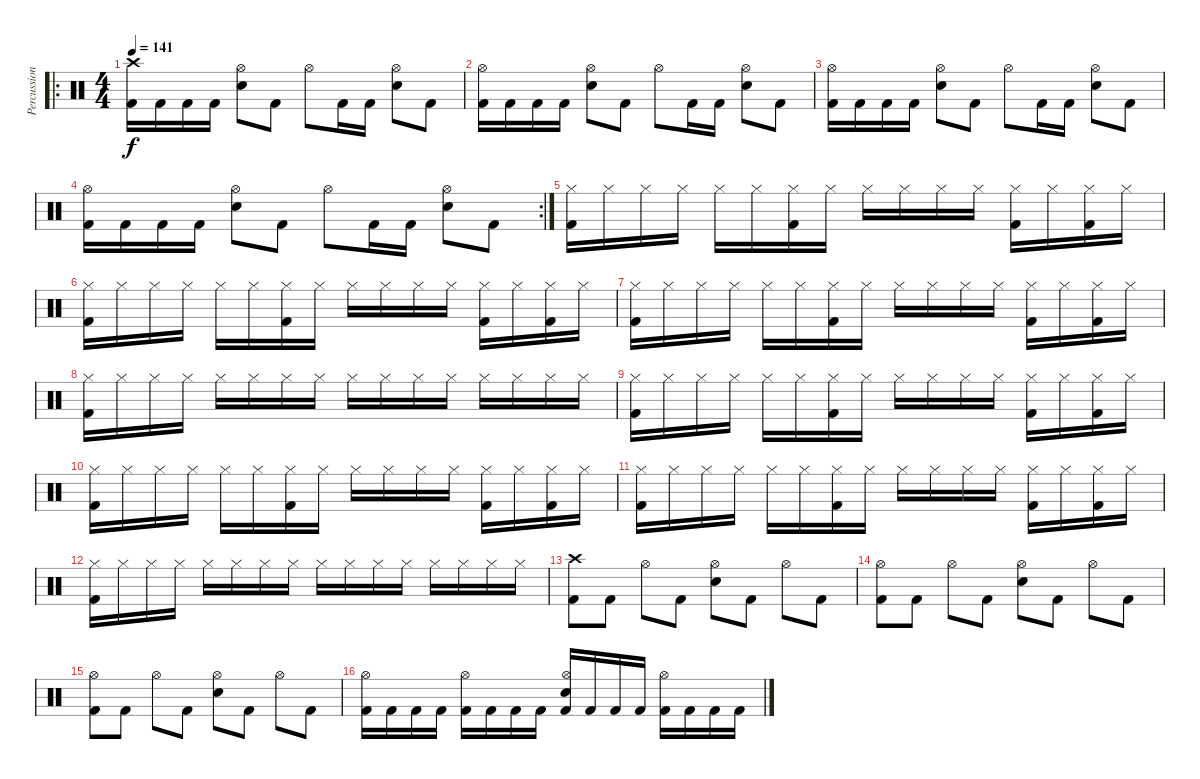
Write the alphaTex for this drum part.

\track ("Percussion" "Percussion") {instrument percussion}
\staff {score}
\articulation defaults
\ro
\ts (4 4)
\tempo 141
\clef neutral
\ks c
("Crash high (hit)" "Kick (hit) 2").16{dy f} "Kick (hit) 2".16 "Kick (hit) 2".16 "Kick (hit) 2".16 ("Hi-Hat (open)" "Electric Snare (hit)").8 "Kick (hit) 2".8 "Hi-Hat (open)".8 "Kick (hit) 2".16 "Kick (hit) 2".16 ("Hi-Hat (open)" "Electric Snare (hit)").8 "Kick (hit) 2".8 |
("Hi-Hat (open)" "Kick (hit) 2").16 "Kick (hit) 2".16 "Kick (hit) 2".16 "Kick (hit) 2".16 ("Hi-Hat (open)" "Electric Snare (hit)").8 "Kick (hit) 2".8 "Hi-Hat (open)".8 "Kick (hit) 2".16 "Kick (hit) 2".16 ("Hi-Hat (open)" "Electric Snare (hit)").8 "Kick (hit) 2".8 |
("Hi-Hat (open)" "Kick (hit) 2").16 "Kick (hit) 2".16 "Kick (hit) 2".16 "Kick (hit) 2".16 ("Hi-Hat (open)" "Electric Snare (hit)").8 "Kick (hit) 2".8 "Hi-Hat (open)".8 "Kick (hit) 2".16 "Kick (hit) 2".16 ("Hi-Hat (open)" "Electric Snare (hit)").8 "Kick (hit) 2".8 |
\rc 2
("Hi-Hat (open)" "Kick (hit) 2").16 "Kick (hit) 2".16 "Kick (hit) 2".16 "Kick (hit) 2".16 ("Hi-Hat (open)" "Electric Snare (hit)").8 "Kick (hit) 2".8 "Hi-Hat (open)".8 "Kick (hit) 2".16 "Kick (hit) 2".16 ("Hi-Hat (open)" "Electric Snare (hit)").8 "Kick (hit) 2".8 |
("Hi-Hat (closed)" "Kick (hit) 2").16 "Hi-Hat (closed)".16 "Hi-Hat (closed)".16 "Hi-Hat (closed)".16 "Hi-Hat (closed)".16 "Hi-Hat (closed)".16 ("Hi-Hat (closed)" "Kick (hit) 2").16 "Hi-Hat (closed)".16 "Hi-Hat (closed)".16 "Hi-Hat (closed)".16 "Hi-Hat (closed)".16 "Hi-Hat (closed)".16 ("Hi-Hat (closed)" "Kick (hit) 2").16 "Hi-Hat (closed)".16 ("Hi-Hat (closed)" "Kick (hit) 2").16 "Hi-Hat (closed)".16 |
("Hi-Hat (closed)" "Kick (hit) 2").16 "Hi-Hat (closed)".16 "Hi-Hat (closed)".16 "Hi-Hat (closed)".16 "Hi-Hat (closed)".16 "Hi-Hat (closed)".16 ("Hi-Hat (closed)" "Kick (hit) 2").16 "Hi-Hat (closed)".16 "Hi-Hat (closed)".16 "Hi-Hat (closed)".16 "Hi-Hat (closed)".16 "Hi-Hat (closed)".16 ("Hi-Hat (closed)" "Kick (hit) 2").16 "Hi-Hat (closed)".16 ("Hi-Hat (closed)" "Kick (hit) 2").16 "Hi-Hat (closed)".16 |
("Hi-Hat (closed)" "Kick (hit) 2").16 "Hi-Hat (closed)".16 "Hi-Hat (closed)".16 "Hi-Hat (closed)".16 "Hi-Hat (closed)".16 "Hi-Hat (closed)".16 ("Hi-Hat (closed)" "Kick (hit) 2").16 "Hi-Hat (closed)".16 "Hi-Hat (closed)".16 "Hi-Hat (closed)".16 "Hi-Hat (closed)".16 "Hi-Hat (closed)".16 ("Hi-Hat (closed)" "Kick (hit) 2").16 "Hi-Hat (closed)".16 ("Hi-Hat (closed)" "Kick (hit) 2").16 "Hi-Hat (closed)".16 |
("Hi-Hat (closed)" "Kick (hit) 2").16 "Hi-Hat (closed)".16 "Hi-Hat (closed)".16 "Hi-Hat (closed)".16 "Hi-Hat (closed)".16 "Hi-Hat (closed)".16 "Hi-Hat (closed)".16 "Hi-Hat (closed)".16 "Hi-Hat (closed)".16 "Hi-Hat (closed)".16 "Hi-Hat (closed)".16 "Hi-Hat (closed)".16 "Hi-Hat (closed)".16 "Hi-Hat (closed)".16 "Hi-Hat (closed)".16 "Hi-Hat (closed)".16 |
("Hi-Hat (closed)" "Kick (hit) 2").16 "Hi-Hat (closed)".16 "Hi-Hat (closed)".16 "Hi-Hat (closed)".16 "Hi-Hat (closed)".16 "Hi-Hat (closed)".16 ("Hi-Hat (closed)" "Kick (hit) 2").16 "Hi-Hat (closed)".16 "Hi-Hat (closed)".16 "Hi-Hat (closed)".16 "Hi-Hat (closed)".16 "Hi-Hat (closed)".16 ("Hi-Hat (closed)" "Kick (hit) 2").16 "Hi-Hat (closed)".16 ("Hi-Hat (closed)" "Kick (hit) 2").16 "Hi-Hat (closed)".16 |
("Hi-Hat (closed)" "Kick (hit) 2").16 "Hi-Hat (closed)".16 "Hi-Hat (closed)".16 "Hi-Hat (closed)".16 "Hi-Hat (closed)".16 "Hi-Hat (closed)".16 ("Hi-Hat (closed)" "Kick (hit) 2").16 "Hi-Hat (closed)".16 "Hi-Hat (closed)".16 "Hi-Hat (closed)".16 "Hi-Hat (closed)".16 "Hi-Hat (closed)".16 ("Hi-Hat (closed)" "Kick (hit) 2").16 "Hi-Hat (closed)".16 ("Hi-Hat (closed)" "Kick (hit) 2").16 "Hi-Hat (closed)".16 |
("Hi-Hat (closed)" "Kick (hit) 2").16 "Hi-Hat (closed)".16 "Hi-Hat (closed)".16 "Hi-Hat (closed)".16 "Hi-Hat (closed)".16 "Hi-Hat (closed)".16 ("Hi-Hat (closed)" "Kick (hit) 2").16 "Hi-Hat (closed)".16 "Hi-Hat (closed)".16 "Hi-Hat (closed)".16 "Hi-Hat (closed)".16 "Hi-Hat (closed)".16 ("Hi-Hat (closed)" "Kick (hit) 2").16 "Hi-Hat (closed)".16 ("Hi-Hat (closed)" "Kick (hit) 2").16 "Hi-Hat (closed)".16 |
("Hi-Hat (closed)" "Kick (hit) 2").16 "Hi-Hat (closed)".16 "Hi-Hat (closed)".16 "Hi-Hat (closed)".16 "Hi-Hat (closed)".16 "Hi-Hat (closed)".16 "Hi-Hat (closed)".16 "Hi-Hat (closed)".16 "Hi-Hat (closed)".16 "Hi-Hat (closed)".16 "Hi-Hat (closed)".16 "Hi-Hat (closed)".16 "Hi-Hat (closed)".16 "Hi-Hat (closed)".16 "Hi-Hat (closed)".16 "Hi-Hat (closed)".16 |
("Crash high (hit)" "Kick (hit) 2").8 "Kick (hit) 2".8 "Hi-Hat (open)".8 "Kick (hit) 2".8 ("Hi-Hat (open)" "Electric Snare (hit)").8 "Kick (hit) 2".8 "Hi-Hat (open)".8 "Kick (hit) 2".8 |
("Hi-Hat (open)" "Kick (hit) 2").8 "Kick (hit) 2".8 "Hi-Hat (open)".8 "Kick (hit) 2".8 ("Hi-Hat (open)" "Electric Snare (hit)").8 "Kick (hit) 2".8 "Hi-Hat (open)".8 "Kick (hit) 2".8 |
("Hi-Hat (open)" "Kick (hit) 2").8 "Kick (hit) 2".8 "Hi-Hat (open)".8 "Kick (hit) 2".8 ("Hi-Hat (open)" "Electric Snare (hit)").8 "Kick (hit) 2".8 "Hi-Hat (open)".8 "Kick (hit) 2".8 |
("Hi-Hat (open)" "Kick (hit) 2").16 "Kick (hit) 2".16 "Kick (hit) 2".16 "Kick (hit) 2".16 ("Hi-Hat (open)" "Kick (hit) 2").16 "Kick (hit) 2".16 "Kick (hit) 2".16 "Kick (hit) 2".16 ("Hi-Hat (open)" "Electric Snare (hit)" "Kick (hit) 2").16 "Kick (hit) 2".16 "Kick (hit) 2".16 "Kick (hit) 2".16 ("Hi-Hat (open)" "Kick (hit) 2").16 "Kick (hit) 2".16 "Kick (hit) 2".16 "Kick (hit) 2".16
